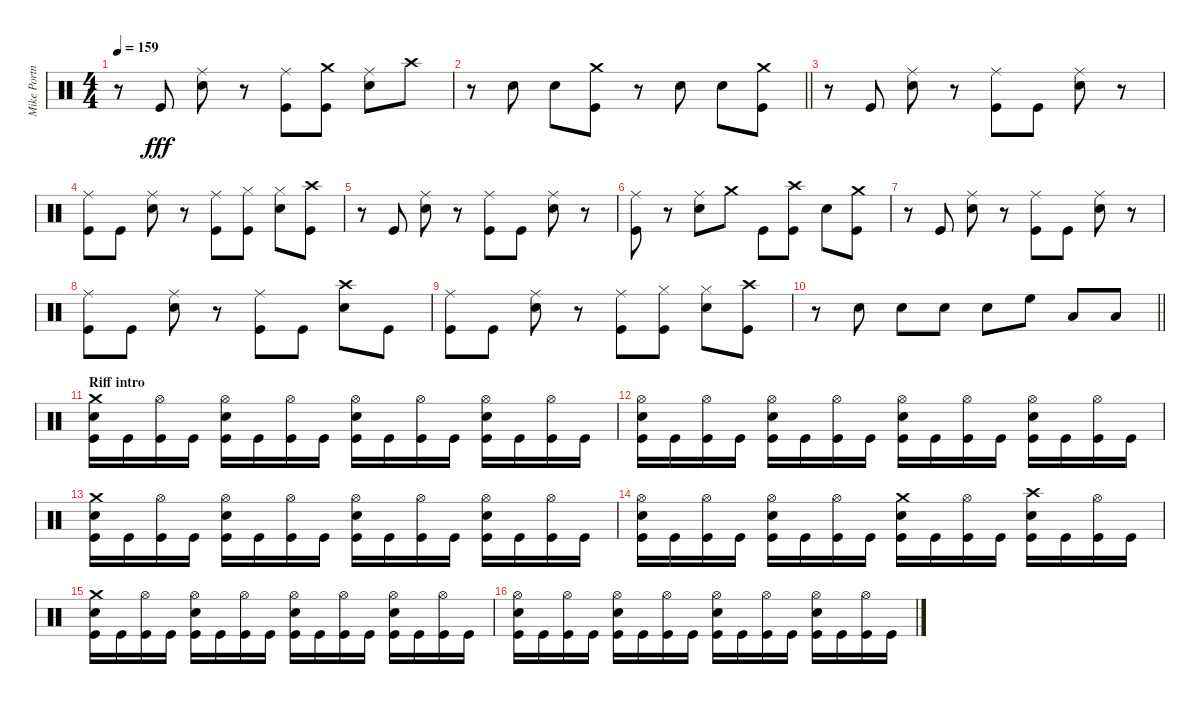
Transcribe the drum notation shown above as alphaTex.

\track ("Mike Portnoy" "Mike Portn") {instrument percussion}
\staff {score}
\articulation defaults
\ts (4 4)
\tempo 159
\clef neutral
\ks c
r.8{dy fff} "Kick (hit)".8 ("Ride (middle)" "Electric Snare (hit)").8 r.8 ("Ride (middle)" "Kick (hit)").8 ("Crash medium (hit)" "Kick (hit)").8 ("Ride (middle)" "Electric Snare (hit)").8 "Crash high (hit)".8 |
\barLineRight lightlight
r.8 "Electric Snare (hit)".8 "Electric Snare (hit)".8 ("Crash medium (hit)" "Kick (hit)").8 r.8 "Electric Snare (hit)".8 "Electric Snare (hit)".8 ("Crash medium (hit)" "Kick (hit)").8 |
r.8 "Kick (hit)".8 ("Ride (middle)" "Electric Snare (hit)").8 r.8 ("Ride (middle)" "Kick (hit)").8 "Kick (hit)".8 ("Ride (middle)" "Electric Snare (hit)").8 r.8 |
("Ride (middle)" "Kick (hit)").8 "Kick (hit)".8 ("Ride (middle)" "Electric Snare (hit)").8 r.8 ("Ride (middle)" "Kick (hit)").8 ("Hi-Hat (closed)" "Kick (hit)").8 ("Hi-Hat (closed)" "Electric Snare (hit)").8 ("Crash high (hit)" "Kick (hit)").8 |
r.8 "Kick (hit)".8 ("Ride (middle)" "Electric Snare (hit)").8 r.8 ("Ride (middle)" "Kick (hit)").8 "Kick (hit)".8 ("Ride (middle)" "Electric Snare (hit)").8 r.8 |
("Ride (middle)" "Kick (hit)").8 r.8 ("Ride (middle)" "Electric Snare (hit)").8 "Crash medium (hit)".8 "Kick (hit)".8 ("Crash high (hit)" "Kick (hit)").8 "Electric Snare (hit)".8 ("Crash medium (hit)" "Kick (hit)").8 |
r.8 "Kick (hit)".8 ("Ride (middle)" "Electric Snare (hit)").8 r.8 ("Ride (middle)" "Kick (hit)").8 "Kick (hit)".8 ("Ride (middle)" "Electric Snare (hit)").8 r.8 |
("Ride (middle)" "Kick (hit)").8 "Kick (hit)".8 ("Ride (middle)" "Electric Snare (hit)").8 r.8 ("Ride (middle)" "Kick (hit)").8 "Kick (hit)".8 ("Crash high (hit)" "Electric Snare (hit)").8 "Kick (hit)".8 |
("Ride (middle)" "Kick (hit)").8 "Kick (hit)".8 ("Ride (middle)" "Electric Snare (hit)").8 r.8 ("Ride (middle)" "Kick (hit)").8 ("Hi-Hat (closed)" "Kick (hit)").8 ("Hi-Hat (closed)" "Electric Snare (hit)").8 ("Crash high (hit)" "Kick (hit)").8 |
\barLineRight lightlight
r.8 "Electric Snare (hit)".8 "Electric Snare (hit)".8 "Electric Snare (hit)".8 "Electric Snare (hit)".8 "High Floor Tom (hit)".8 "Low Tom (hit)".8 "Low Floor Tom (hit)".8 |
\section ("" "Riff intro")
("Crash medium (hit)" "Electric Snare (hit)" "Kick (hit)").16 "Kick (hit)".16 ("Hi-Hat (open)" "Kick (hit)").16 "Kick (hit)".16 ("Hi-Hat (open)" "Electric Snare (hit)" "Kick (hit)").16 "Kick (hit)".16 ("Hi-Hat (open)" "Kick (hit)").16 "Kick (hit)".16 ("Hi-Hat (open)" "Electric Snare (hit)" "Kick (hit)").16 "Kick (hit)".16 ("Hi-Hat (open)" "Kick (hit)").16 "Kick (hit)".16 ("Hi-Hat (open)" "Electric Snare (hit)" "Kick (hit)").16 "Kick (hit)".16 ("Hi-Hat (open)" "Kick (hit)").16 "Kick (hit)".16 |
("Hi-Hat (open)" "Electric Snare (hit)" "Kick (hit)").16 "Kick (hit)".16 ("Hi-Hat (open)" "Kick (hit)").16 "Kick (hit)".16 ("Hi-Hat (open)" "Electric Snare (hit)" "Kick (hit)").16 "Kick (hit)".16 ("Hi-Hat (open)" "Kick (hit)").16 "Kick (hit)".16 ("Hi-Hat (open)" "Electric Snare (hit)" "Kick (hit)").16 "Kick (hit)".16 ("Hi-Hat (open)" "Kick (hit)").16 "Kick (hit)".16 ("Hi-Hat (open)" "Electric Snare (hit)" "Kick (hit)").16 "Kick (hit)".16 ("Hi-Hat (open)" "Kick (hit)").16 "Kick (hit)".16 |
("Crash medium (hit)" "Electric Snare (hit)" "Kick (hit)").16 "Kick (hit)".16 ("Hi-Hat (open)" "Kick (hit)").16 "Kick (hit)".16 ("Hi-Hat (open)" "Electric Snare (hit)" "Kick (hit)").16 "Kick (hit)".16 ("Hi-Hat (open)" "Kick (hit)").16 "Kick (hit)".16 ("Hi-Hat (open)" "Electric Snare (hit)" "Kick (hit)").16 "Kick (hit)".16 ("Hi-Hat (open)" "Kick (hit)").16 "Kick (hit)".16 ("Hi-Hat (open)" "Electric Snare (hit)" "Kick (hit)").16 "Kick (hit)".16 ("Hi-Hat (open)" "Kick (hit)").16 "Kick (hit)".16 |
("Hi-Hat (open)" "Electric Snare (hit)" "Kick (hit)").16 "Kick (hit)".16 ("Hi-Hat (open)" "Kick (hit)").16 "Kick (hit)".16 ("Hi-Hat (open)" "Electric Snare (hit)" "Kick (hit)").16 "Kick (hit)".16 ("Hi-Hat (open)" "Kick (hit)").16 "Kick (hit)".16 ("Crash medium (hit)" "Electric Snare (hit)" "Kick (hit)").16 "Kick (hit)".16 ("Hi-Hat (open)" "Kick (hit)").16 "Kick (hit)".16 ("Crash high (hit)" "Electric Snare (hit)" "Kick (hit)").16 "Kick (hit)".16 ("Hi-Hat (open)" "Kick (hit)").16 "Kick (hit)".16 |
("Crash medium (hit)" "Electric Snare (hit)" "Kick (hit)").16 "Kick (hit)".16 ("Hi-Hat (open)" "Kick (hit)").16 "Kick (hit)".16 ("Hi-Hat (open)" "Electric Snare (hit)" "Kick (hit)").16 "Kick (hit)".16 ("Hi-Hat (open)" "Kick (hit)").16 "Kick (hit)".16 ("Hi-Hat (open)" "Electric Snare (hit)" "Kick (hit)").16 "Kick (hit)".16 ("Hi-Hat (open)" "Kick (hit)").16 "Kick (hit)".16 ("Hi-Hat (open)" "Electric Snare (hit)" "Kick (hit)").16 "Kick (hit)".16 ("Hi-Hat (open)" "Kick (hit)").16 "Kick (hit)".16 |
("Hi-Hat (open)" "Electric Snare (hit)" "Kick (hit)").16 "Kick (hit)".16 ("Hi-Hat (open)" "Kick (hit)").16 "Kick (hit)".16 ("Hi-Hat (open)" "Electric Snare (hit)" "Kick (hit)").16 "Kick (hit)".16 ("Hi-Hat (open)" "Kick (hit)").16 "Kick (hit)".16 ("Hi-Hat (open)" "Electric Snare (hit)" "Kick (hit)").16 "Kick (hit)".16 ("Hi-Hat (open)" "Kick (hit)").16 "Kick (hit)".16 ("Hi-Hat (open)" "Electric Snare (hit)" "Kick (hit)").16 "Kick (hit)".16 ("Hi-Hat (open)" "Kick (hit)").16 "Kick (hit)".16
